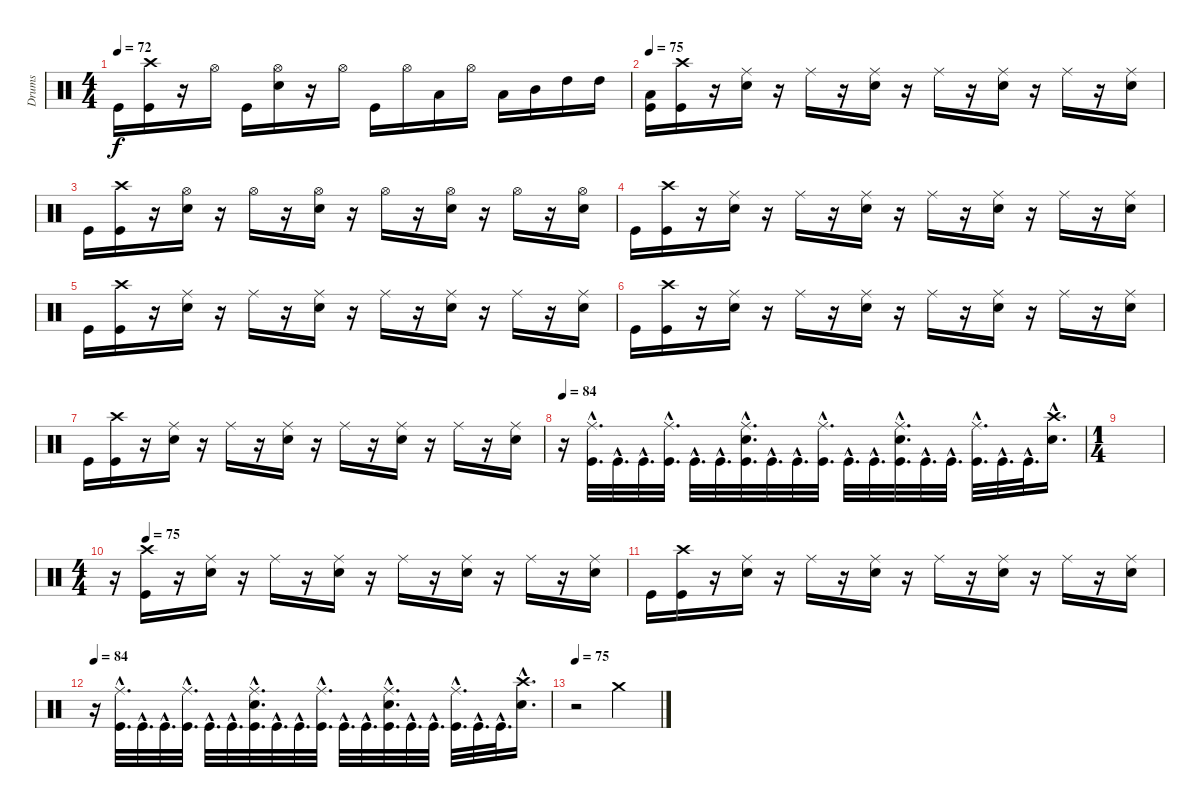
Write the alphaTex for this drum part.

\track ("Drums" "Drums") {instrument percussion}
\staff {score}
\articulation defaults
\ts (4 4)
\tempo 72
\clef neutral
\ks c "Kick (hit)".16{dy f}
("Crash high (hit)" "Kick (hit)").16 r.16 "Hi-Hat (open)".16 "Kick (hit)".16 ("Hi-Hat (open)" "Snare (hit) 2").16 r.16 "Hi-Hat (open)".16 "Kick (hit)".16 "Hi-Hat (open)".16 "Low Tom (hit)".16 "Hi-Hat (open)".16 "Low Tom (hit)".16 "Mid Tom (hit)".16 "High Tom (hit)".16 "High Tom (hit)".16 |
\tempo 75
("Low Tom (hit)" "Kick (hit)").16 ("Crash high (hit)" "Kick (hit)").16 r.16 ("Ride (middle)" "Snare (hit) 2").16 r.16 "Ride (middle)".16 r.16 ("Ride (middle)" "Snare (hit) 2").16 r.16 "Ride (middle)".16 r.16 ("Ride (middle)" "Snare (hit) 2").16 r.16 "Ride (middle)".16 r.16 ("Ride (middle)" "Snare (hit) 2").16 |
"Kick (hit)".16 ("Crash high (hit)" "Kick (hit)").16 r.16 ("Hi-Hat (open)" "Snare (hit) 2").16 r.16 "Hi-Hat (open)".16 r.16 ("Hi-Hat (open)" "Snare (hit) 2").16 r.16 "Hi-Hat (open)".16 r.16 ("Hi-Hat (open)" "Snare (hit) 2").16 r.16 "Hi-Hat (open)".16 r.16 ("Hi-Hat (open)" "Snare (hit) 2").16 |
"Kick (hit)".16 ("Crash high (hit)" "Kick (hit)").16 r.16 ("Ride (middle)" "Snare (hit) 2").16 r.16 "Ride (middle)".16 r.16 ("Ride (middle)" "Snare (hit) 2").16 r.16 "Ride (middle)".16 r.16 ("Ride (middle)" "Snare (hit) 2").16 r.16 "Ride (middle)".16 r.16 ("Ride (middle)" "Snare (hit) 2").16 |
"Kick (hit)".16 ("Crash high (hit)" "Kick (hit)").16 r.16 ("Ride (middle)" "Snare (hit) 2").16 r.16 "Ride (middle)".16 r.16 ("Ride (middle)" "Snare (hit) 2").16 r.16 "Ride (middle)".16 r.16 ("Ride (middle)" "Snare (hit) 2").16 r.16 "Ride (middle)".16 r.16 ("Ride (middle)" "Snare (hit) 2").16 |
"Kick (hit)".16 ("Crash high (hit)" "Kick (hit)").16 r.16 ("Ride (middle)" "Snare (hit) 2").16 r.16 "Ride (middle)".16 r.16 ("Ride (middle)" "Snare (hit) 2").16 r.16 "Ride (middle)".16 r.16 ("Ride (middle)" "Snare (hit) 2").16 r.16 "Ride (middle)".16 r.16 ("Ride (middle)" "Snare (hit) 2").16 |
"Kick (hit)".16 ("Crash high (hit)" "Kick (hit)").16 r.16 ("Ride (middle)" "Snare (hit) 2").16 r.16 "Ride (middle)".16 r.16 ("Ride (middle)" "Snare (hit) 2").16 r.16 "Ride (middle)".16 r.16 ("Ride (middle)" "Snare (hit) 2").16 r.16 "Ride (middle)".16 r.16 ("Ride (middle)" "Snare (hit) 2").16 |
\tempo 84
r.16 ("Ride (middle)"{hac} "Kick (hit)"{hac}).32{d} "Kick (hit)"{hac}.32{d} "Kick (hit)"{hac}.32{d} ("Ride (middle)"{hac} "Kick (hit)"{hac}).32{d} "Kick (hit)"{hac}.32{d} "Kick (hit)"{hac}.32{d} ("Ride (middle)"{hac} "Snare (hit) 2"{hac} "Kick (hit)"{hac}).32{d} "Kick (hit)"{hac}.32{d} "Kick (hit)"{hac}.32{d} ("Ride (middle)"{hac} "Kick (hit)"{hac}).32{d} "Kick (hit)"{hac}.32{d} "Kick (hit)"{hac}.32{d} ("Ride (middle)"{hac} "Snare (hit) 2"{hac} "Kick (hit)"{hac}).32{d} "Kick (hit)"{hac}.32{d} "Kick (hit)"{hac}.32{d} ("Ride (middle)"{hac} "Kick (hit)"{hac}).32{d} "Kick (hit)"{hac}.32{d} "Kick (hit)"{hac}.32{d} ("Crash high (hit)"{hac} "Snare (hit) 2"{hac}).16{d} |
\ts (1 4)
|
\ts (4 4)
\tempo (75 0.0625)
r.16 ("Crash high (hit)" "Kick (hit)").16 r.16 ("Ride (middle)" "Snare (hit) 2").16 r.16 "Ride (middle)".16 r.16 ("Ride (middle)" "Snare (hit) 2").16 r.16 "Ride (middle)".16 r.16 ("Ride (middle)" "Snare (hit) 2").16 r.16 "Ride (middle)".16 r.16 ("Ride (middle)" "Snare (hit) 2").16 |
"Kick (hit)".16 ("Crash high (hit)" "Kick (hit)").16 r.16 ("Ride (middle)" "Snare (hit) 2").16 r.16 "Ride (middle)".16 r.16 ("Ride (middle)" "Snare (hit) 2").16 r.16 "Ride (middle)".16 r.16 ("Ride (middle)" "Snare (hit) 2").16 r.16 "Ride (middle)".16 r.16 ("Ride (middle)" "Snare (hit) 2").16 |
\tempo 84
r.16 ("Ride (middle)"{hac} "Kick (hit)"{hac}).32{d} "Kick (hit)"{hac}.32{d} "Kick (hit)"{hac}.32{d} ("Ride (middle)"{hac} "Kick (hit)"{hac}).32{d} "Kick (hit)"{hac}.32{d} "Kick (hit)"{hac}.32{d} ("Ride (middle)"{hac} "Snare (hit) 2"{hac} "Kick (hit)"{hac}).32{d} "Kick (hit)"{hac}.32{d} "Kick (hit)"{hac}.32{d} ("Ride (middle)"{hac} "Kick (hit)"{hac}).32{d} "Kick (hit)"{hac}.32{d} "Kick (hit)"{hac}.32{d} ("Ride (middle)"{hac} "Snare (hit) 2"{hac} "Kick (hit)"{hac}).32{d} "Kick (hit)"{hac}.32{d} "Kick (hit)"{hac}.32{d} ("Ride (middle)"{hac} "Kick (hit)"{hac}).32{d} "Kick (hit)"{hac}.32{d} "Kick (hit)"{hac}.32{d} ("Crash high (hit)"{hac} "Snare (hit) 2"{hac}).16{d} |
\tempo 75
r.2 "Crash medium (hit)".2
